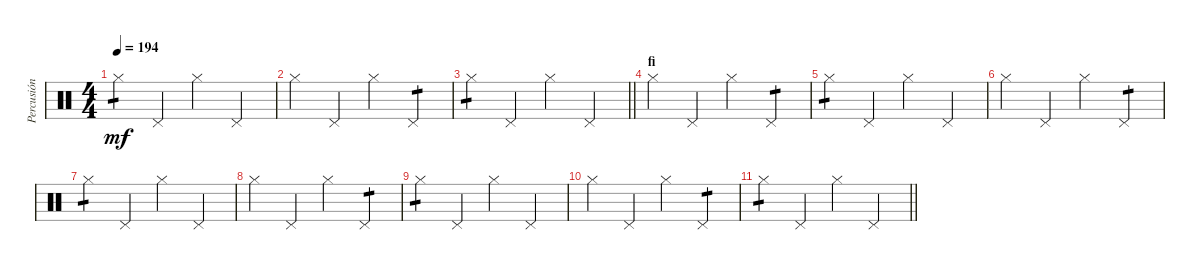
\track ("Percusión" "Percusión") {instrument percussion}
\staff {score}
\articulation defaults
\ts (4 4)
\tempo 194
\clef neutral
\ks c "Hi-Hat (closed)".4{tp 1 dy mf} "Pedal Hi-Hat (hit)".4 "Hi-Hat (closed)".4 "Pedal Hi-Hat (hit)".4
|
"Hi-Hat (closed)".4 "Pedal Hi-Hat (hit)".4 "Hi-Hat (closed)".4 "Pedal Hi-Hat (hit)".4{tp 1} |
\barLineRight lightlight "Hi-Hat (closed)".4{tp 1} "Pedal Hi-Hat (hit)".4 "Hi-Hat (closed)".4 "Pedal Hi-Hat (hit)".4
|
\section ("" "fi")
"Hi-Hat (closed)".4 "Pedal Hi-Hat (hit)".4 "Hi-Hat (closed)".4 "Pedal Hi-Hat (hit)".4{tp 1} |
"Hi-Hat (closed)".4{tp 1} "Pedal Hi-Hat (hit)".4 "Hi-Hat (closed)".4 "Pedal Hi-Hat (hit)".4 |
"Hi-Hat (closed)".4 "Pedal Hi-Hat (hit)".4 "Hi-Hat (closed)".4 "Pedal Hi-Hat (hit)".4{tp 1} |
"Hi-Hat (closed)".4{tp 1} "Pedal Hi-Hat (hit)".4 "Hi-Hat (closed)".4 "Pedal Hi-Hat (hit)".4 |
"Hi-Hat (closed)".4 "Pedal Hi-Hat (hit)".4 "Hi-Hat (closed)".4 "Pedal Hi-Hat (hit)".4{tp 1} |
"Hi-Hat (closed)".4{tp 1} "Pedal Hi-Hat (hit)".4 "Hi-Hat (closed)".4 "Pedal Hi-Hat (hit)".4 |
"Hi-Hat (closed)".4 "Pedal Hi-Hat (hit)".4 "Hi-Hat (closed)".4 "Pedal Hi-Hat (hit)".4{tp 1} |
\barLineRight lightlight "Hi-Hat (closed)".4{tp 1} "Pedal Hi-Hat (hit)".4 "Hi-Hat (closed)".4 "Pedal Hi-Hat (hit)".4
